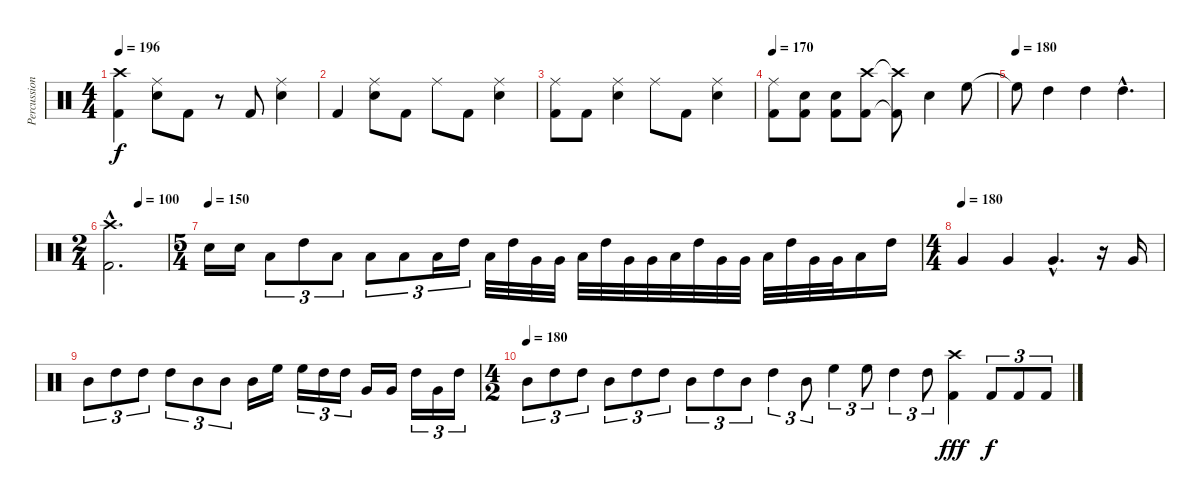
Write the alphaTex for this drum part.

\track ("Percussion" "Percussion") {instrument percussion}
\staff {score}
\articulation defaults
\ts (4 4)
\tempo 196
\clef neutral
\ks c
("Crash high (hit)" "Kick (hit) 2").4{dy f} ("Ride (middle)" "Snare (hit) 2").8 "Kick (hit) 2".8 r.8 "Kick (hit) 2".8 ("Ride (middle)" "Snare (hit) 2").4 |
"Kick (hit) 2".4 ("Ride (middle)" "Snare (hit) 2").8 "Kick (hit) 2".8 "Ride (middle)".8 "Kick (hit) 2".8 ("Ride (middle)" "Snare (hit) 2").4 |
("Ride (middle)" "Kick (hit) 2").8 "Kick (hit) 2".8 ("Ride (middle)" "Snare (hit) 2").4 "Ride (middle)".8 "Kick (hit) 2".8 ("Ride (middle)" "Snare (hit) 2").4 |
\tempo 170
("Ride (middle)" "Kick (hit) 2").8 ("Snare (hit) 2" "Kick (hit) 2").8 ("Snare (hit) 2" "Kick (hit) 2").8 ("Crash high (hit)" "Kick (hit) 2").8 ("Crash high (hit)"{t} "Kick (hit) 2"{t}).8 "Snare (hit) 2".4 "High Floor Tom (hit)".8 |
\tempo (180)
"High Floor Tom (hit)"{t}.8 "High Tom (hit)".4 "High Tom (hit)".4 "High Tom (hit)"{hac}.4{d} |
\ts (2 4)
\tempo (100 0.5)
("Crash high (hit)"{hac} "Kick (hit) 2"{hac}).2{d} |
\ts (5 4)
\tempo (150)
"Snare (hit) 2".16 "Snare (hit) 2".16 "Low Tom (hit)".8{tu (3 2)} "High Tom (hit)".8{tu (3 2)} "Low Tom (hit)".8{tu (3 2)} "Low Tom (hit)".8{tu (3 2)} "Low Tom (hit)".8{tu (3 2)} "Low Tom (hit)".16{tu (3 2)} "High Tom (hit)".16{tu (3 2)} "Low Tom (hit)".32 "High Tom (hit)".32 "Very Low Tom (hit)".32 "Very Low Tom (hit)".32 "Low Tom (hit)".32 "High Tom (hit)".32 "Very Low Tom (hit)".32 "Very Low Tom (hit)".32 "Low Tom (hit)".32 "High Tom (hit)".32 "Very Low Tom (hit)".32 "Very Low Tom (hit)".32 "Low Tom (hit)".32 "High Tom (hit)".32 "Very Low Tom (hit)".32 "Very Low Tom (hit)".32 "Low Tom (hit)".16 "High Tom (hit)".16 |
\ts (4 4)
\tempo (180)
"Very Low Tom (hit)".4 "Very Low Tom (hit)".4 "Very Low Tom (hit)"{hac}.4{d} r.16 "Very Low Tom (hit)".16 |
"Mid Tom (hit)".8{tu (3 2)} "High Tom (hit)".8{tu (3 2)} "High Tom (hit)".8{tu (3 2)} "High Tom (hit)".8{tu (3 2)} "Mid Tom (hit)".8{tu (3 2)} "Mid Tom (hit)".8{tu (3 2)} "Mid Tom (hit)".16 "High Floor Tom (hit)".16 "High Floor Tom (hit)".16{tu (3 2)} "High Tom (hit)".16{tu (3 2)} "High Tom (hit)".16{tu (3 2)} "Very Low Tom (hit)".16 "Very Low Tom (hit)".16 "High Tom (hit)".16{tu (3 2)} "Very Low Tom (hit)".16{tu (3 2)} "High Tom (hit)".16{tu (3 2)} |
\ts (4 2)
\tempo (180)
"Mid Tom (hit)".8{tu (3 2)} "High Tom (hit)".8{tu (3 2)} "High Tom (hit)".8{tu (3 2)} "Mid Tom (hit)".8{tu (3 2)} "High Tom (hit)".8{tu (3 2)} "High Tom (hit)".8{tu (3 2)} "Mid Tom (hit)".8{tu (3 2)} "High Tom (hit)".8{tu (3 2)} "Mid Tom (hit)".8{tu (3 2)} "High Tom (hit)".4{tu (3 2)} "Mid Tom (hit)".8{tu (3 2)} "High Floor Tom (hit)".4{tu (3 2)} "High Floor Tom (hit)".8{tu (3 2)} "High Tom (hit)".4{tu (3 2)} "High Tom (hit)".8{tu (3 2)} ("Crash high (hit)" "Kick (hit) 2").4{dy fff} "Kick (hit) 2".8{tu (3 2) dy f} "Kick (hit) 2".8{tu (3 2)} "Kick (hit) 2".8{tu (3 2)}
